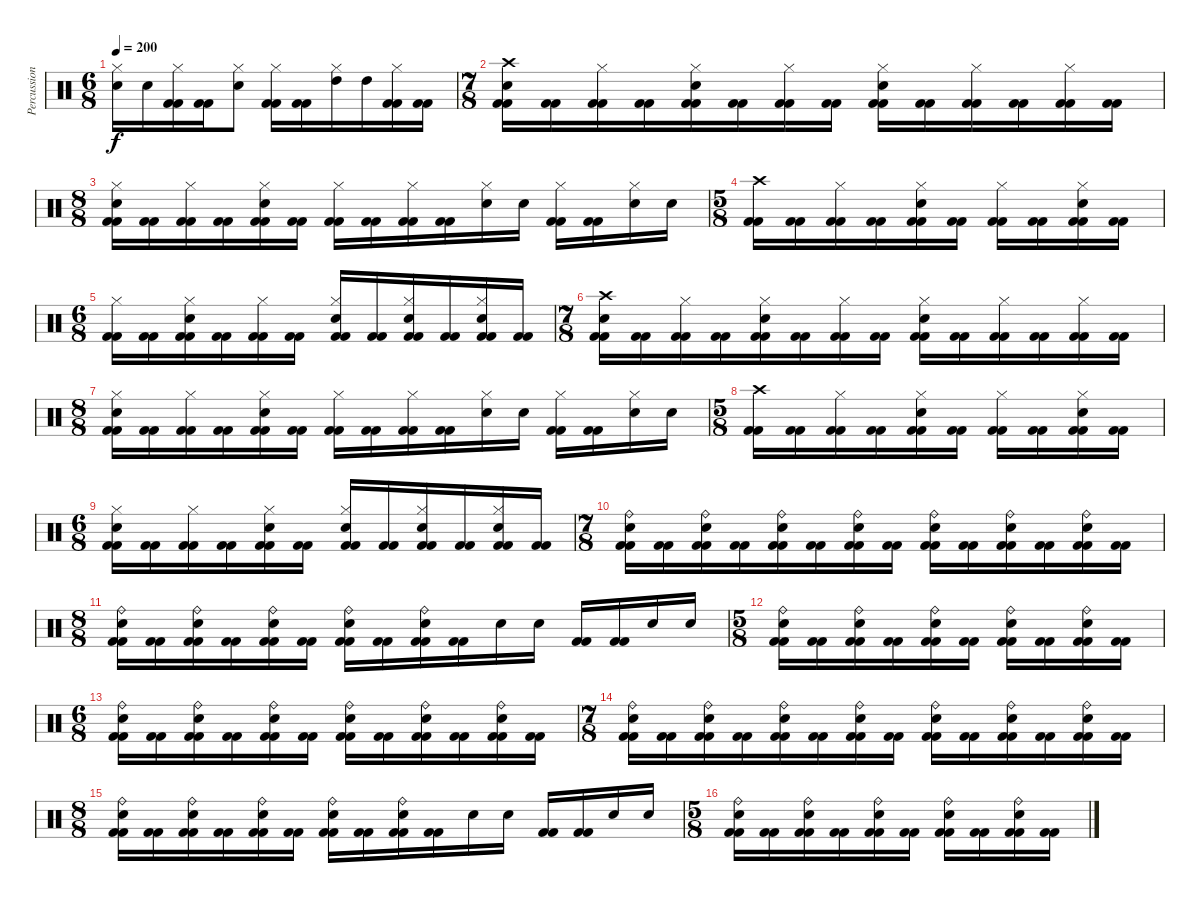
\track ("Percussions" "Percussion") {instrument percussion}
\staff {score}
\articulation defaults
\ts (6 8)
\tempo 200
\clef neutral
\ks c
("Electric Snare (hit)" "Hi-Hat (closed)").16{dy f} "Electric Snare (hit)".16 ("Kick (hit) 2" "Kick (hit) 2" "Hi-Hat (closed)").16 ("Kick (hit) 2" "Kick (hit) 2").16 ("Electric Snare (hit)" "Hi-Hat (closed)").8 ("Kick (hit) 2" "Kick (hit) 2" "Hi-Hat (closed)").16 ("Kick (hit) 2" "Kick (hit) 2").16 ("High Tom (hit)" "Hi-Hat (closed)").16 "High Tom (hit)".16 ("Kick (hit) 2" "Kick (hit) 2" "Hi-Hat (closed)").16 ("Kick (hit) 2" "Kick (hit) 2").16 |
\ts (7 8)
("Kick (hit) 2" "Kick (hit) 2" "Electric Snare (hit)" "Crash high (hit)").16 ("Kick (hit) 2" "Kick (hit) 2").16 ("Kick (hit) 2" "Kick (hit) 2" "Hi-Hat (closed)").16 ("Kick (hit) 2" "Kick (hit) 2").16 ("Kick (hit) 2" "Kick (hit) 2" "Electric Snare (hit)" "Hi-Hat (closed)").16 ("Kick (hit) 2" "Kick (hit) 2").16 ("Kick (hit) 2" "Kick (hit) 2" "Hi-Hat (closed)").16 ("Kick (hit) 2" "Kick (hit) 2").16 ("Kick (hit) 2" "Kick (hit) 2" "Electric Snare (hit)" "Hi-Hat (closed)").16 ("Kick (hit) 2" "Kick (hit) 2").16 ("Kick (hit) 2" "Kick (hit) 2" "Hi-Hat (closed)").16 ("Kick (hit) 2" "Kick (hit) 2").16 ("Kick (hit) 2" "Kick (hit) 2" "Hi-Hat (closed)").16 ("Kick (hit) 2" "Kick (hit) 2").16 |
\ts (8 8)
("Kick (hit) 2" "Kick (hit) 2" "Electric Snare (hit)" "Hi-Hat (closed)").16 ("Kick (hit) 2" "Kick (hit) 2").16 ("Kick (hit) 2" "Kick (hit) 2" "Hi-Hat (closed)").16 ("Kick (hit) 2" "Kick (hit) 2").16 ("Kick (hit) 2" "Kick (hit) 2" "Electric Snare (hit)" "Hi-Hat (closed)").16 ("Kick (hit) 2" "Kick (hit) 2").16 ("Kick (hit) 2" "Kick (hit) 2" "Hi-Hat (closed)").16 ("Kick (hit) 2" "Kick (hit) 2").16 ("Kick (hit) 2" "Kick (hit) 2" "Hi-Hat (closed)").16 ("Kick (hit) 2" "Kick (hit) 2").16 ("Electric Snare (hit)" "Hi-Hat (closed)").16 "Electric Snare (hit)".16 ("Kick (hit) 2" "Kick (hit) 2" "Hi-Hat (closed)").16 ("Kick (hit) 2" "Kick (hit) 2").16 ("Electric Snare (hit)" "Hi-Hat (closed)").16 "Electric Snare (hit)".16 |
\ts (5 8)
("Kick (hit) 2" "Kick (hit) 2" "Crash high (hit)").16 ("Kick (hit) 2" "Kick (hit) 2").16 ("Kick (hit) 2" "Kick (hit) 2" "Hi-Hat (closed)").16 ("Kick (hit) 2" "Kick (hit) 2").16 ("Kick (hit) 2" "Kick (hit) 2" "Electric Snare (hit)" "Hi-Hat (closed)").16 ("Kick (hit) 2" "Kick (hit) 2").16 ("Kick (hit) 2" "Kick (hit) 2" "Hi-Hat (closed)").16 ("Kick (hit) 2" "Kick (hit) 2").16 ("Kick (hit) 2" "Kick (hit) 2" "Electric Snare (hit)" "Hi-Hat (closed)").16 ("Kick (hit) 2" "Kick (hit) 2").16 |
\ts (6 8)
("Kick (hit) 2" "Kick (hit) 2" "Hi-Hat (closed)").16 ("Kick (hit) 2" "Kick (hit) 2").16 ("Kick (hit) 2" "Kick (hit) 2" "Electric Snare (hit)" "Hi-Hat (closed)").16 ("Kick (hit) 2" "Kick (hit) 2").16 ("Kick (hit) 2" "Kick (hit) 2" "Hi-Hat (closed)").16 ("Kick (hit) 2" "Kick (hit) 2").16 ("Kick (hit) 2" "Kick (hit) 2" "Electric Snare (hit)" "Hi-Hat (closed)").16 ("Kick (hit) 2" "Kick (hit) 2").16 ("Kick (hit) 2" "Kick (hit) 2" "Electric Snare (hit)" "Hi-Hat (closed)").16 ("Kick (hit) 2" "Kick (hit) 2").16 ("Kick (hit) 2" "Kick (hit) 2" "Electric Snare (hit)" "Hi-Hat (closed)").16 ("Kick (hit) 2" "Kick (hit) 2").16 |
\ts (7 8)
("Kick (hit) 2" "Kick (hit) 2" "Electric Snare (hit)" "Crash high (hit)").16 ("Kick (hit) 2" "Kick (hit) 2").16 ("Kick (hit) 2" "Kick (hit) 2" "Hi-Hat (closed)").16 ("Kick (hit) 2" "Kick (hit) 2").16 ("Kick (hit) 2" "Kick (hit) 2" "Electric Snare (hit)" "Hi-Hat (closed)").16 ("Kick (hit) 2" "Kick (hit) 2").16 ("Kick (hit) 2" "Kick (hit) 2" "Hi-Hat (closed)").16 ("Kick (hit) 2" "Kick (hit) 2").16 ("Kick (hit) 2" "Kick (hit) 2" "Electric Snare (hit)" "Hi-Hat (closed)").16 ("Kick (hit) 2" "Kick (hit) 2").16 ("Kick (hit) 2" "Kick (hit) 2" "Hi-Hat (closed)").16 ("Kick (hit) 2" "Kick (hit) 2").16 ("Kick (hit) 2" "Kick (hit) 2" "Hi-Hat (closed)").16 ("Kick (hit) 2" "Kick (hit) 2").16 |
\ts (8 8)
("Kick (hit) 2" "Kick (hit) 2" "Electric Snare (hit)" "Hi-Hat (closed)").16 ("Kick (hit) 2" "Kick (hit) 2").16 ("Kick (hit) 2" "Kick (hit) 2" "Hi-Hat (closed)").16 ("Kick (hit) 2" "Kick (hit) 2").16 ("Kick (hit) 2" "Kick (hit) 2" "Electric Snare (hit)" "Hi-Hat (closed)").16 ("Kick (hit) 2" "Kick (hit) 2").16 ("Kick (hit) 2" "Kick (hit) 2" "Hi-Hat (closed)").16 ("Kick (hit) 2" "Kick (hit) 2").16 ("Kick (hit) 2" "Kick (hit) 2" "Hi-Hat (closed)").16 ("Kick (hit) 2" "Kick (hit) 2").16 ("Electric Snare (hit)" "Hi-Hat (closed)").16 "Electric Snare (hit)".16 ("Kick (hit) 2" "Kick (hit) 2" "Hi-Hat (closed)").16 ("Kick (hit) 2" "Kick (hit) 2").16 ("Electric Snare (hit)" "Hi-Hat (closed)").16 "Electric Snare (hit)".16 |
\ts (5 8)
("Kick (hit) 2" "Kick (hit) 2" "Crash high (hit)").16 ("Kick (hit) 2" "Kick (hit) 2").16 ("Kick (hit) 2" "Kick (hit) 2" "Hi-Hat (closed)").16 ("Kick (hit) 2" "Kick (hit) 2").16 ("Kick (hit) 2" "Kick (hit) 2" "Electric Snare (hit)" "Hi-Hat (closed)").16 ("Kick (hit) 2" "Kick (hit) 2").16 ("Kick (hit) 2" "Kick (hit) 2" "Hi-Hat (closed)").16 ("Kick (hit) 2" "Kick (hit) 2").16 ("Kick (hit) 2" "Kick (hit) 2" "Electric Snare (hit)" "Hi-Hat (closed)").16 ("Kick (hit) 2" "Kick (hit) 2").16 |
\ts (6 8)
("Kick (hit) 2" "Kick (hit) 2" "Electric Snare (hit)" "Hi-Hat (closed)").16 ("Kick (hit) 2" "Kick (hit) 2").16 ("Kick (hit) 2" "Kick (hit) 2" "Hi-Hat (closed)").16 ("Kick (hit) 2" "Kick (hit) 2").16 ("Kick (hit) 2" "Kick (hit) 2" "Electric Snare (hit)" "Hi-Hat (closed)").16 ("Kick (hit) 2" "Kick (hit) 2").16 ("Kick (hit) 2" "Kick (hit) 2" "Electric Snare (hit)" "Hi-Hat (closed)").16 ("Kick (hit) 2" "Kick (hit) 2").16 ("Kick (hit) 2" "Kick (hit) 2" "Electric Snare (hit)" "Hi-Hat (closed)").16 ("Kick (hit) 2" "Kick (hit) 2").16 ("Kick (hit) 2" "Kick (hit) 2" "Electric Snare (hit)" "Hi-Hat (closed)").16 ("Kick (hit) 2" "Kick (hit) 2").16 |
\ts (7 8)
("Kick (hit) 2" "Kick (hit) 2" "Electric Snare (hit)" "Ride (bell)").16 ("Kick (hit) 2" "Kick (hit) 2").16 ("Kick (hit) 2" "Kick (hit) 2" "Electric Snare (hit)" "Ride (bell)").16 ("Kick (hit) 2" "Kick (hit) 2").16 ("Kick (hit) 2" "Kick (hit) 2" "Electric Snare (hit)" "Ride (bell)").16 ("Kick (hit) 2" "Kick (hit) 2").16 ("Kick (hit) 2" "Kick (hit) 2" "Electric Snare (hit)" "Ride (bell)").16 ("Kick (hit) 2" "Kick (hit) 2").16 ("Kick (hit) 2" "Kick (hit) 2" "Electric Snare (hit)" "Ride (bell)").16 ("Kick (hit) 2" "Kick (hit) 2").16 ("Kick (hit) 2" "Kick (hit) 2" "Electric Snare (hit)" "Ride (bell)").16 ("Kick (hit) 2" "Kick (hit) 2").16 ("Kick (hit) 2" "Kick (hit) 2" "Electric Snare (hit)" "Ride (bell)").16 ("Kick (hit) 2" "Kick (hit) 2").16 |
\ts (8 8)
("Kick (hit) 2" "Kick (hit) 2" "Electric Snare (hit)" "Ride (bell)").16 ("Kick (hit) 2" "Kick (hit) 2").16 ("Kick (hit) 2" "Kick (hit) 2" "Electric Snare (hit)" "Ride (bell)").16 ("Kick (hit) 2" "Kick (hit) 2").16 ("Kick (hit) 2" "Kick (hit) 2" "Electric Snare (hit)" "Ride (bell)").16 ("Kick (hit) 2" "Kick (hit) 2").16 ("Kick (hit) 2" "Kick (hit) 2" "Electric Snare (hit)" "Ride (bell)").16 ("Kick (hit) 2" "Kick (hit) 2").16 ("Kick (hit) 2" "Kick (hit) 2" "Electric Snare (hit)" "Ride (bell)").16 ("Kick (hit) 2" "Kick (hit) 2").16 "Electric Snare (hit)".16 "Electric Snare (hit)".16 ("Kick (hit) 2" "Kick (hit) 2").16 ("Kick (hit) 2" "Kick (hit) 2").16 "Electric Snare (hit)".16 "Electric Snare (hit)".16 |
\ts (5 8)
("Kick (hit) 2" "Kick (hit) 2" "Electric Snare (hit)" "Ride (bell)").16 ("Kick (hit) 2" "Kick (hit) 2").16 ("Kick (hit) 2" "Kick (hit) 2" "Electric Snare (hit)" "Ride (bell)").16 ("Kick (hit) 2" "Kick (hit) 2").16 ("Kick (hit) 2" "Kick (hit) 2" "Electric Snare (hit)" "Ride (bell)").16 ("Kick (hit) 2" "Kick (hit) 2").16 ("Kick (hit) 2" "Kick (hit) 2" "Electric Snare (hit)" "Ride (bell)").16 ("Kick (hit) 2" "Kick (hit) 2").16 ("Kick (hit) 2" "Kick (hit) 2" "Electric Snare (hit)" "Ride (bell)").16 ("Kick (hit) 2" "Kick (hit) 2").16 |
\ts (6 8)
("Kick (hit) 2" "Kick (hit) 2" "Electric Snare (hit)" "Ride (bell)").16 ("Kick (hit) 2" "Kick (hit) 2").16 ("Kick (hit) 2" "Kick (hit) 2" "Electric Snare (hit)" "Ride (bell)").16 ("Kick (hit) 2" "Kick (hit) 2").16 ("Kick (hit) 2" "Kick (hit) 2" "Electric Snare (hit)" "Ride (bell)").16 ("Kick (hit) 2" "Kick (hit) 2").16 ("Kick (hit) 2" "Kick (hit) 2" "Electric Snare (hit)" "Ride (bell)").16 ("Kick (hit) 2" "Kick (hit) 2").16 ("Kick (hit) 2" "Kick (hit) 2" "Electric Snare (hit)" "Ride (bell)").16 ("Kick (hit) 2" "Kick (hit) 2").16 ("Kick (hit) 2" "Kick (hit) 2" "Electric Snare (hit)" "Ride (bell)").16 ("Kick (hit) 2" "Kick (hit) 2").16 |
\ts (7 8)
("Kick (hit) 2" "Kick (hit) 2" "Electric Snare (hit)" "Ride (bell)").16 ("Kick (hit) 2" "Kick (hit) 2").16 ("Kick (hit) 2" "Kick (hit) 2" "Electric Snare (hit)" "Ride (bell)").16 ("Kick (hit) 2" "Kick (hit) 2").16 ("Kick (hit) 2" "Kick (hit) 2" "Electric Snare (hit)" "Ride (bell)").16 ("Kick (hit) 2" "Kick (hit) 2").16 ("Kick (hit) 2" "Kick (hit) 2" "Electric Snare (hit)" "Ride (bell)").16 ("Kick (hit) 2" "Kick (hit) 2").16 ("Kick (hit) 2" "Kick (hit) 2" "Electric Snare (hit)" "Ride (bell)").16 ("Kick (hit) 2" "Kick (hit) 2").16 ("Kick (hit) 2" "Kick (hit) 2" "Electric Snare (hit)" "Ride (bell)").16 ("Kick (hit) 2" "Kick (hit) 2").16 ("Kick (hit) 2" "Kick (hit) 2" "Electric Snare (hit)" "Ride (bell)").16 ("Kick (hit) 2" "Kick (hit) 2").16 |
\ts (8 8)
("Kick (hit) 2" "Kick (hit) 2" "Electric Snare (hit)" "Ride (bell)").16 ("Kick (hit) 2" "Kick (hit) 2").16 ("Kick (hit) 2" "Kick (hit) 2" "Electric Snare (hit)" "Ride (bell)").16 ("Kick (hit) 2" "Kick (hit) 2").16 ("Kick (hit) 2" "Kick (hit) 2" "Electric Snare (hit)" "Ride (bell)").16 ("Kick (hit) 2" "Kick (hit) 2").16 ("Kick (hit) 2" "Kick (hit) 2" "Electric Snare (hit)" "Ride (bell)").16 ("Kick (hit) 2" "Kick (hit) 2").16 ("Kick (hit) 2" "Kick (hit) 2" "Electric Snare (hit)" "Ride (bell)").16 ("Kick (hit) 2" "Kick (hit) 2").16 "Electric Snare (hit)".16 "Electric Snare (hit)".16 ("Kick (hit) 2" "Kick (hit) 2").16 ("Kick (hit) 2" "Kick (hit) 2").16 "Electric Snare (hit)".16 "Electric Snare (hit)".16 |
\ts (5 8)
("Kick (hit) 2" "Kick (hit) 2" "Electric Snare (hit)" "Ride (bell)").16 ("Kick (hit) 2" "Kick (hit) 2").16 ("Kick (hit) 2" "Kick (hit) 2" "Electric Snare (hit)" "Ride (bell)").16 ("Kick (hit) 2" "Kick (hit) 2").16 ("Kick (hit) 2" "Kick (hit) 2" "Electric Snare (hit)" "Ride (bell)").16 ("Kick (hit) 2" "Kick (hit) 2").16 ("Kick (hit) 2" "Kick (hit) 2" "Electric Snare (hit)" "Ride (bell)").16 ("Kick (hit) 2" "Kick (hit) 2").16 ("Kick (hit) 2" "Kick (hit) 2" "Electric Snare (hit)" "Ride (bell)").16 ("Kick (hit) 2" "Kick (hit) 2").16
